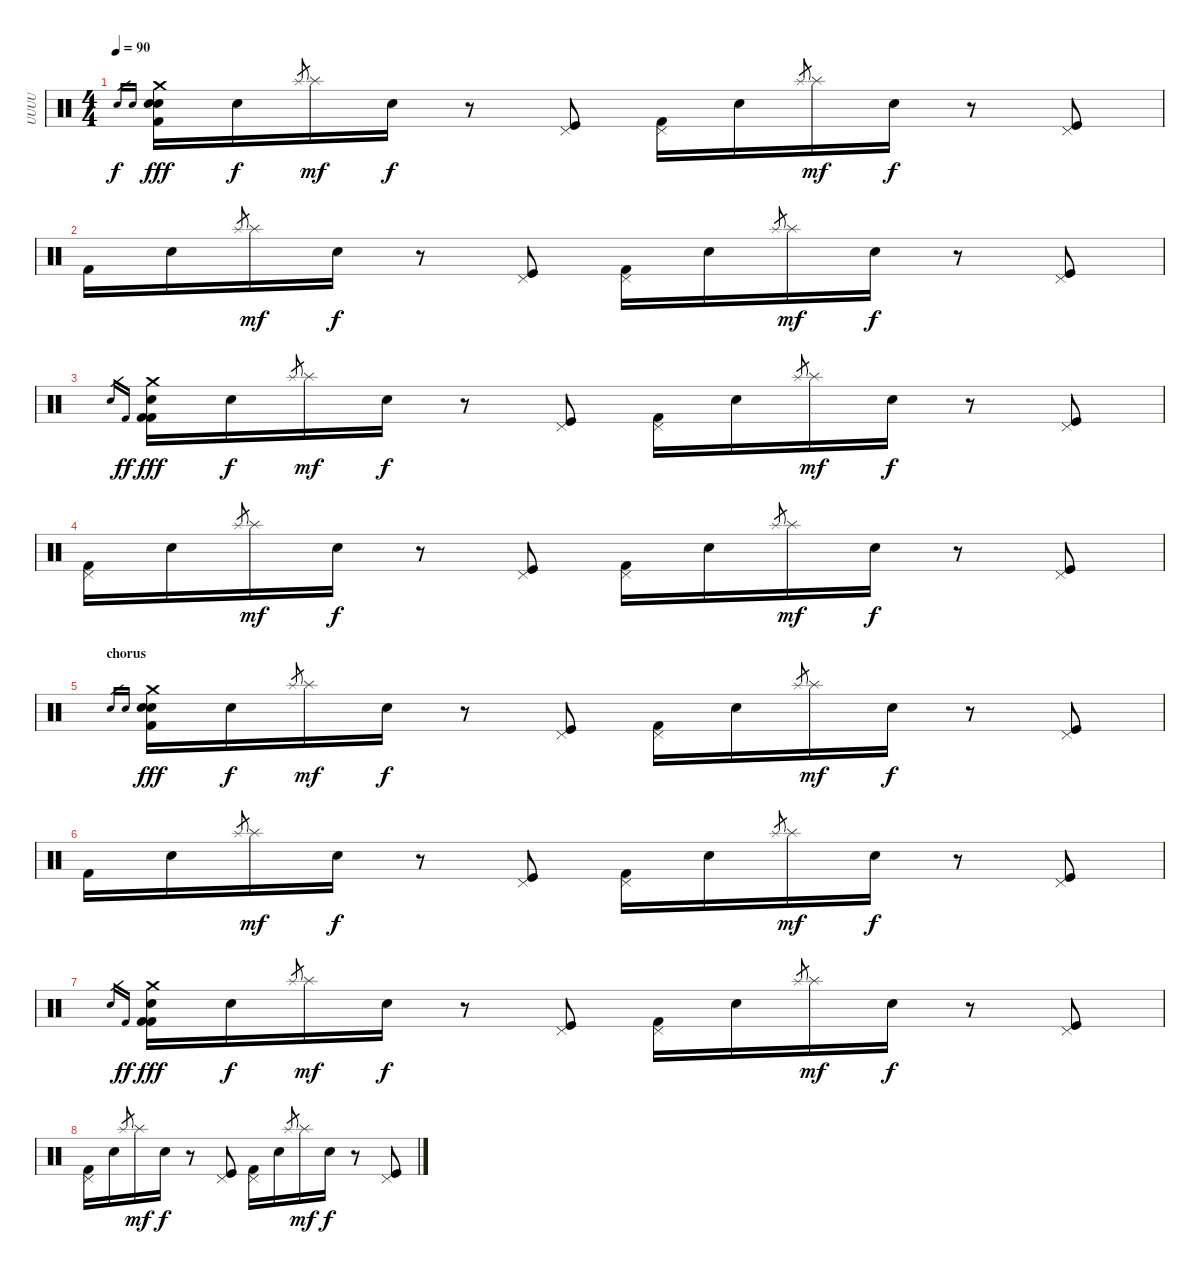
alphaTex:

\track ("UUUU" "UUUU") {instrument percussion}
\staff {score}
\articulation defaults
\ts (4 4)
\tempo 90
\clef neutral
\ks c "Electric Snare (hit)".16{gr dy f} "Snare (hit) 2".16{gr}
("Crash medium (hit)" "Kick (hit) 2" "Electric Snare (hit)" "Snare (hit) 2").16{dy fff} "Snare (hit) 2".16{dy f} "Splash (hit)".8{gr} "Splash (hit)".16{dy mf} "Electric Snare (hit)".16{dy f} r.8 ("Pedal Hi-Hat (hit)" "Kick (hit)").8 ("Pedal Hi-Hat (hit)" "Kick (hit) 2").16 "Snare (hit) 2".16 "Splash (hit)"{h}.8{gr} "Splash (hit)".16{dy mf} "Electric Snare (hit)".16{dy f} r.8 ("Pedal Hi-Hat (hit)" "Kick (hit)").8 |
"Kick (hit) 2".16 "Snare (hit) 2".16 "Splash (hit)".8{gr} "Splash (hit)".16{dy mf} "Electric Snare (hit)".16{dy f} r.8 ("Pedal Hi-Hat (hit)" "Kick (hit)").8 ("Pedal Hi-Hat (hit)" "Kick (hit) 2").16 "Snare (hit) 2".16 "Splash (hit)".8{gr} "Splash (hit)".16{dy mf} "Electric Snare (hit)".16{dy f} r.8 ("Pedal Hi-Hat (hit)" "Kick (hit)").8 |
"Electric Snare (hit)".16{gr} "Kick (hit) 2".16{gr dy ff} ("Crash medium (hit)" "Kick (hit) 2" "Electric Snare (hit)" "Kick (hit) 2").16{dy fff} "Snare (hit) 2".16{dy f} "Splash (hit)".8{gr} "Splash (hit)".16{dy mf} "Electric Snare (hit)".16{dy f} r.8 ("Pedal Hi-Hat (hit)" "Kick (hit)").8 ("Pedal Hi-Hat (hit)" "Kick (hit) 2").16 "Snare (hit) 2".16 "Splash (hit)".8{gr} "Splash (hit)".16{dy mf} "Electric Snare (hit)".16{dy f} r.8 ("Pedal Hi-Hat (hit)" "Kick (hit)").8 |
("Pedal Hi-Hat (hit)" "Kick (hit) 2").16 "Snare (hit) 2".16 "Splash (hit)".8{gr} "Splash (hit)".16{dy mf} "Electric Snare (hit)".16{dy f} r.8 ("Pedal Hi-Hat (hit)" "Kick (hit)").8 ("Pedal Hi-Hat (hit)" "Kick (hit) 2").16 "Snare (hit) 2".16 "Splash (hit)"{h}.8{gr} "Splash (hit)".16{dy mf} "Electric Snare (hit)".16{dy f} r.8 ("Pedal Hi-Hat (hit)" "Kick (hit)").8 |
\section ("" "chorus")
"Electric Snare (hit)".16{gr} "Snare (hit) 2".16{gr} ("Crash medium (hit)" "Kick (hit) 2" "Electric Snare (hit)" "Snare (hit) 2").16{dy fff} "Snare (hit) 2".16{dy f} "Splash (hit)".8{gr} "Splash (hit)".16{dy mf} "Electric Snare (hit)".16{dy f} r.8 ("Pedal Hi-Hat (hit)" "Kick (hit)").8 ("Pedal Hi-Hat (hit)" "Kick (hit) 2").16 "Snare (hit) 2".16 "Splash (hit)"{h}.8{gr} "Splash (hit)".16{dy mf} "Electric Snare (hit)".16{dy f} r.8 ("Pedal Hi-Hat (hit)" "Kick (hit)").8 |
"Kick (hit) 2".16 "Snare (hit) 2".16 "Splash (hit)".8{gr} "Splash (hit)".16{dy mf} "Electric Snare (hit)".16{dy f} r.8 ("Pedal Hi-Hat (hit)" "Kick (hit)").8 ("Pedal Hi-Hat (hit)" "Kick (hit) 2").16 "Snare (hit) 2".16 "Splash (hit)".8{gr} "Splash (hit)".16{dy mf} "Electric Snare (hit)".16{dy f} r.8 ("Pedal Hi-Hat (hit)" "Kick (hit)").8 |
"Electric Snare (hit)".16{gr} "Kick (hit) 2".16{gr dy ff} ("Crash medium (hit)" "Kick (hit) 2" "Electric Snare (hit)" "Kick (hit) 2").16{dy fff} "Snare (hit) 2".16{dy f} "Splash (hit)".8{gr} "Splash (hit)".16{dy mf} "Electric Snare (hit)".16{dy f} r.8 ("Pedal Hi-Hat (hit)" "Kick (hit)").8 ("Pedal Hi-Hat (hit)" "Kick (hit) 2").16 "Snare (hit) 2".16 "Splash (hit)".8{gr} "Splash (hit)".16{dy mf} "Electric Snare (hit)".16{dy f} r.8 ("Pedal Hi-Hat (hit)" "Kick (hit)").8 |
("Pedal Hi-Hat (hit)" "Kick (hit) 2").16 "Snare (hit) 2".16 "Splash (hit)".8{gr} "Splash (hit)".16{dy mf} "Electric Snare (hit)".16{dy f} r.8 ("Pedal Hi-Hat (hit)" "Kick (hit)").8 ("Pedal Hi-Hat (hit)" "Kick (hit) 2").16 "Snare (hit) 2".16 "Splash (hit)"{h}.8{gr} "Splash (hit)".16{dy mf} "Electric Snare (hit)".16{dy f} r.8 ("Pedal Hi-Hat (hit)" "Kick (hit)").8
